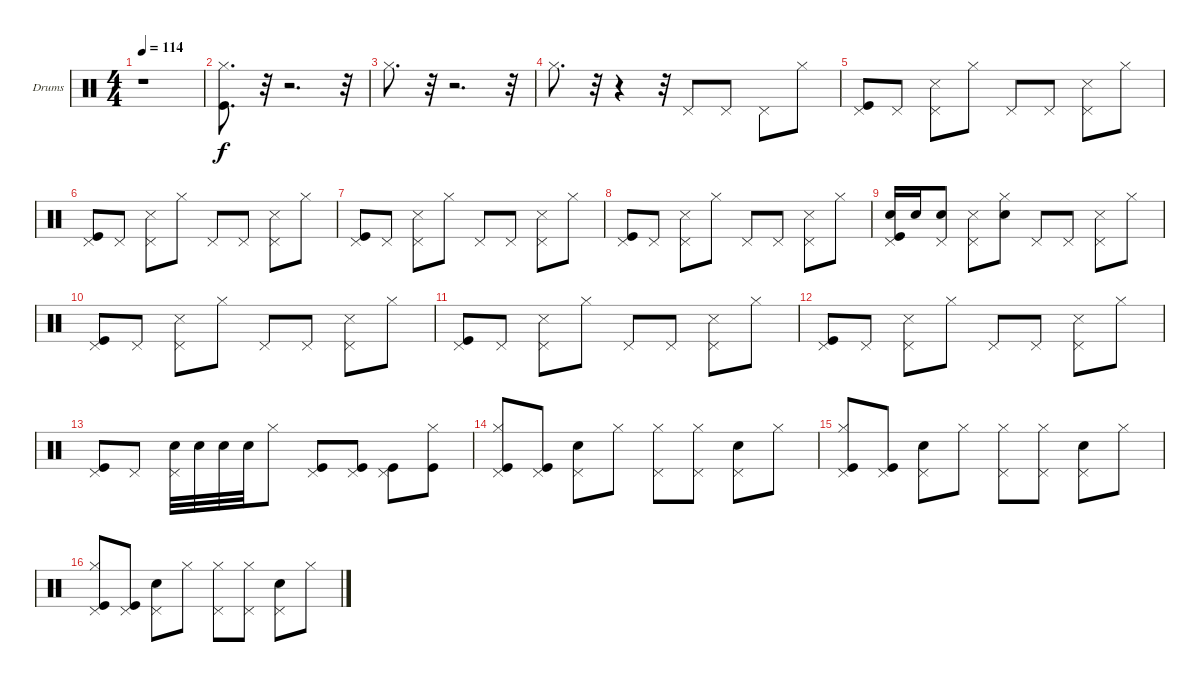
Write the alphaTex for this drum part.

\bracketExtendMode groupsimilarinstruments
\firstSystemTrackNameOrientation horizontal
\otherSystemsTrackNameOrientation horizontal
\track ("Drumkit" "Drums") {instrument percussion}
\staff {score}
\articulation defaults
\ts (4 4)
\tempo 114
\clef neutral
\ks c
r.1{dy f} |
("Kick (hit)" "Hi-Hat (closed)").8{d} r.32 r.2{d} r.32 |
"Hi-Hat (closed)".8{d} r.32 r.2{d} r.32 |
"Hi-Hat (closed)".8{d} r.32 r.4 r.32 "Pedal Hi-Hat (hit)".8 "Pedal Hi-Hat (hit)".8 "Pedal Hi-Hat (hit)".8 "Hi-Hat (closed)".8 |
("Kick (hit)" "Pedal Hi-Hat (hit)").8 "Pedal Hi-Hat (hit)".8 ("Snare (side stick) 3" "Pedal Hi-Hat (hit)").8 "Hi-Hat (closed)".8 "Pedal Hi-Hat (hit)".8 "Pedal Hi-Hat (hit)".8 ("Snare (side stick) 3" "Pedal Hi-Hat (hit)").8 "Hi-Hat (closed)".8 |
("Kick (hit)" "Pedal Hi-Hat (hit)").8 "Pedal Hi-Hat (hit)".8 ("Snare (side stick) 3" "Pedal Hi-Hat (hit)").8 "Hi-Hat (closed)".8 "Pedal Hi-Hat (hit)".8 "Pedal Hi-Hat (hit)".8 ("Snare (side stick) 3" "Pedal Hi-Hat (hit)").8 "Hi-Hat (closed)".8 |
("Kick (hit)" "Pedal Hi-Hat (hit)").8 "Pedal Hi-Hat (hit)".8 ("Snare (side stick) 3" "Pedal Hi-Hat (hit)").8 "Hi-Hat (closed)".8 "Pedal Hi-Hat (hit)".8 "Pedal Hi-Hat (hit)".8 ("Snare (side stick) 3" "Pedal Hi-Hat (hit)").8 "Hi-Hat (closed)".8 |
("Kick (hit)" "Pedal Hi-Hat (hit)").8 "Pedal Hi-Hat (hit)".8 ("Snare (side stick) 3" "Pedal Hi-Hat (hit)").8 "Hi-Hat (closed)".8 "Pedal Hi-Hat (hit)".8 "Pedal Hi-Hat (hit)".8 ("Snare (side stick) 3" "Pedal Hi-Hat (hit)").8 "Hi-Hat (closed)".8 |
("Kick (hit)" "Snare (hit) 2" "Pedal Hi-Hat (hit)").16 "Snare (hit) 2".16 ("Snare (hit) 2" "Pedal Hi-Hat (hit)").8 ("Snare (side stick) 3" "Pedal Hi-Hat (hit)").8 ("Snare (hit) 2" "Hi-Hat (closed)").8 "Pedal Hi-Hat (hit)".8 "Pedal Hi-Hat (hit)".8 ("Snare (side stick) 3" "Pedal Hi-Hat (hit)").8 "Hi-Hat (closed)".8 |
("Kick (hit)" "Pedal Hi-Hat (hit)").8 "Pedal Hi-Hat (hit)".8 ("Snare (side stick) 3" "Pedal Hi-Hat (hit)").8 "Hi-Hat (closed)".8 "Pedal Hi-Hat (hit)".8 "Pedal Hi-Hat (hit)".8 ("Snare (side stick) 3" "Pedal Hi-Hat (hit)").8 "Hi-Hat (closed)".8 |
("Kick (hit)" "Pedal Hi-Hat (hit)").8 "Pedal Hi-Hat (hit)".8 ("Snare (side stick) 3" "Pedal Hi-Hat (hit)").8 "Hi-Hat (closed)".8 "Pedal Hi-Hat (hit)".8 "Pedal Hi-Hat (hit)".8 ("Snare (side stick) 3" "Pedal Hi-Hat (hit)").8 "Hi-Hat (closed)".8 |
("Kick (hit)" "Pedal Hi-Hat (hit)").8 "Pedal Hi-Hat (hit)".8 ("Snare (side stick) 3" "Pedal Hi-Hat (hit)").8 "Hi-Hat (closed)".8 "Pedal Hi-Hat (hit)".8 "Pedal Hi-Hat (hit)".8 ("Snare (side stick) 3" "Pedal Hi-Hat (hit)").8 "Hi-Hat (closed)".8 |
("Kick (hit)" "Pedal Hi-Hat (hit)").8 "Pedal Hi-Hat (hit)".8 ("Snare (hit) 2" "Pedal Hi-Hat (hit)").32 "Snare (hit) 2".32 "Snare (hit) 2".32 "Snare (hit) 2".32 "Hi-Hat (closed)".8 ("Kick (hit)" "Pedal Hi-Hat (hit)").8 ("Kick (hit)" "Pedal Hi-Hat (hit)").8 ("Kick (hit)" "Pedal Hi-Hat (hit)").8 ("Kick (hit)" "Hi-Hat (closed)").8 |
("Kick (hit)" "Hi-Hat (closed)" "Pedal Hi-Hat (hit)").8 ("Kick (hit)" "Pedal Hi-Hat (hit)").8 ("Snare (hit) 2" "Pedal Hi-Hat (hit)").8 "Hi-Hat (closed)".8 ("Hi-Hat (closed)" "Pedal Hi-Hat (hit)").8 ("Hi-Hat (closed)" "Pedal Hi-Hat (hit)").8 ("Snare (hit) 2" "Pedal Hi-Hat (hit)").8 "Hi-Hat (closed)".8 |
("Kick (hit)" "Hi-Hat (closed)" "Pedal Hi-Hat (hit)").8 ("Kick (hit)" "Pedal Hi-Hat (hit)").8 ("Snare (hit) 2" "Pedal Hi-Hat (hit)").8 "Hi-Hat (closed)".8 ("Hi-Hat (closed)" "Pedal Hi-Hat (hit)").8 ("Hi-Hat (closed)" "Pedal Hi-Hat (hit)").8 ("Snare (hit) 2" "Pedal Hi-Hat (hit)").8 "Hi-Hat (closed)".8 |
("Kick (hit)" "Hi-Hat (closed)" "Pedal Hi-Hat (hit)").8 ("Kick (hit)" "Pedal Hi-Hat (hit)").8 ("Snare (hit) 2" "Pedal Hi-Hat (hit)").8 "Hi-Hat (closed)".8 ("Hi-Hat (closed)" "Pedal Hi-Hat (hit)").8 ("Hi-Hat (closed)" "Pedal Hi-Hat (hit)").8 ("Snare (hit) 2" "Pedal Hi-Hat (hit)").8 "Hi-Hat (closed)".8
